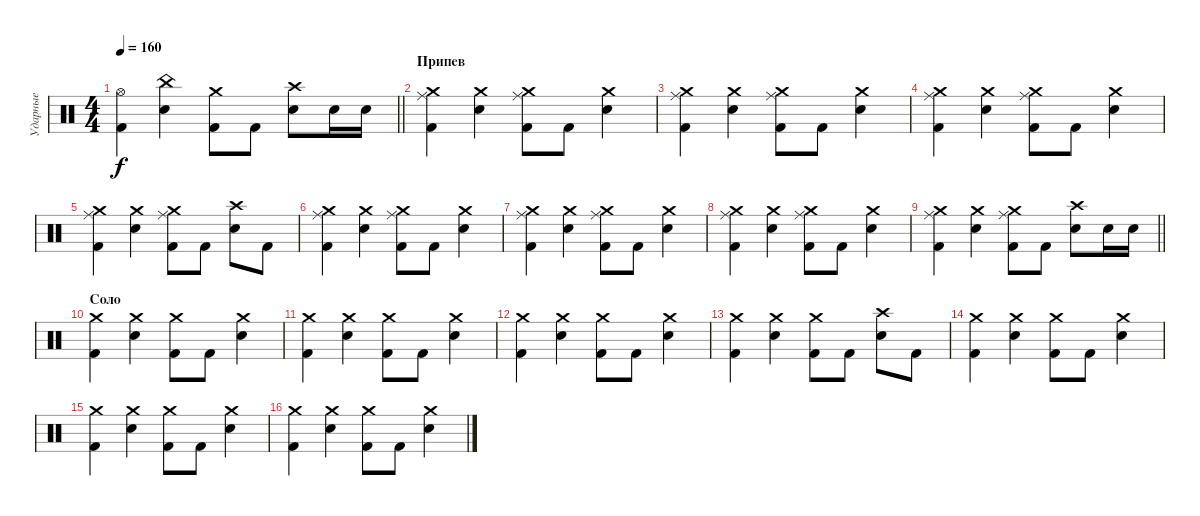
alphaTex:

\track ("Ударные" "Ударные") {instrument percussion}
\staff {score}
\articulation defaults
\ts (4 4)
\tempo 160
\clef neutral
\barLineRight lightlight
\ks c
("Kick (hit) 2" "Hi-Hat (open)").4{dy f} ("Electric Snare (hit)" "China (hit)").4 ("Kick (hit) 2" "Crash medium (hit)").8 "Kick (hit) 2".8 ("Electric Snare (hit)" "Crash high (hit)").8 "Electric Snare (hit)".16 "Electric Snare (hit)".16 |
\section ("" "Припев")
("Kick (hit) 2" "Crash medium (hit)" "Ride (middle)").4 ("Electric Snare (hit)" "Crash medium (hit)").4 ("Kick (hit) 2" "Crash medium (hit)" "Ride (middle)").8 "Kick (hit) 2".8 ("Electric Snare (hit)" "Crash medium (hit)").4 |
("Kick (hit) 2" "Crash medium (hit)" "Ride (middle)").4 ("Electric Snare (hit)" "Crash medium (hit)").4 ("Kick (hit) 2" "Crash medium (hit)" "Ride (middle)").8 "Kick (hit) 2".8 ("Electric Snare (hit)" "Crash medium (hit)").4 |
("Kick (hit) 2" "Crash medium (hit)" "Ride (middle)").4 ("Electric Snare (hit)" "Crash medium (hit)").4 ("Kick (hit) 2" "Crash medium (hit)" "Ride (middle)").8 "Kick (hit) 2".8 ("Electric Snare (hit)" "Crash medium (hit)").4 |
("Kick (hit) 2" "Crash medium (hit)" "Ride (middle)").4 ("Electric Snare (hit)" "Crash medium (hit)").4 ("Kick (hit) 2" "Crash medium (hit)" "Ride (middle)").8 "Kick (hit) 2".8 ("Electric Snare (hit)" "Crash high (hit)").8 "Kick (hit) 2".8 |
("Kick (hit) 2" "Crash medium (hit)" "Ride (middle)").4 ("Electric Snare (hit)" "Crash medium (hit)").4 ("Kick (hit) 2" "Crash medium (hit)" "Ride (middle)").8 "Kick (hit) 2".8 ("Electric Snare (hit)" "Crash medium (hit)").4 |
("Kick (hit) 2" "Crash medium (hit)" "Ride (middle)").4 ("Electric Snare (hit)" "Crash medium (hit)").4 ("Kick (hit) 2" "Crash medium (hit)" "Ride (middle)").8 "Kick (hit) 2".8 ("Electric Snare (hit)" "Crash medium (hit)").4 |
("Kick (hit) 2" "Crash medium (hit)" "Ride (middle)").4 ("Electric Snare (hit)" "Crash medium (hit)").4 ("Kick (hit) 2" "Crash medium (hit)" "Ride (middle)").8 "Kick (hit) 2".8 ("Electric Snare (hit)" "Crash medium (hit)").4 |
\barLineRight lightlight
("Kick (hit) 2" "Crash medium (hit)" "Ride (middle)").4 ("Electric Snare (hit)" "Crash medium (hit)").4 ("Kick (hit) 2" "Crash medium (hit)" "Ride (middle)").8 "Kick (hit) 2".8 ("Electric Snare (hit)" "Crash high (hit)").8 "Electric Snare (hit)".16 "Electric Snare (hit)".16 |
\section ("" "Соло")
("Kick (hit) 2" "Crash medium (hit)").4 ("Electric Snare (hit)" "Crash medium (hit)").4 ("Kick (hit) 2" "Crash medium (hit)").8 "Kick (hit) 2".8 ("Electric Snare (hit)" "Crash medium (hit)").4 |
("Kick (hit) 2" "Crash medium (hit)").4 ("Electric Snare (hit)" "Crash medium (hit)").4 ("Kick (hit) 2" "Crash medium (hit)").8 "Kick (hit) 2".8 ("Electric Snare (hit)" "Crash medium (hit)").4 |
("Kick (hit) 2" "Crash medium (hit)").4 ("Electric Snare (hit)" "Crash medium (hit)").4 ("Kick (hit) 2" "Crash medium (hit)").8 "Kick (hit) 2".8 ("Electric Snare (hit)" "Crash medium (hit)").4 |
("Kick (hit) 2" "Crash medium (hit)").4 ("Electric Snare (hit)" "Crash medium (hit)").4 ("Kick (hit) 2" "Crash medium (hit)").8 "Kick (hit) 2".8 ("Electric Snare (hit)" "Crash high (hit)").8 "Kick (hit) 2".8 |
("Kick (hit) 2" "Crash medium (hit)").4 ("Electric Snare (hit)" "Crash medium (hit)").4 ("Kick (hit) 2" "Crash medium (hit)").8 "Kick (hit) 2".8 ("Electric Snare (hit)" "Crash medium (hit)").4 |
("Kick (hit) 2" "Crash medium (hit)").4 ("Electric Snare (hit)" "Crash medium (hit)").4 ("Kick (hit) 2" "Crash medium (hit)").8 "Kick (hit) 2".8 ("Electric Snare (hit)" "Crash medium (hit)").4 |
("Kick (hit) 2" "Crash medium (hit)").4 ("Electric Snare (hit)" "Crash medium (hit)").4 ("Kick (hit) 2" "Crash medium (hit)").8 "Kick (hit) 2".8 ("Electric Snare (hit)" "Crash medium (hit)").4
